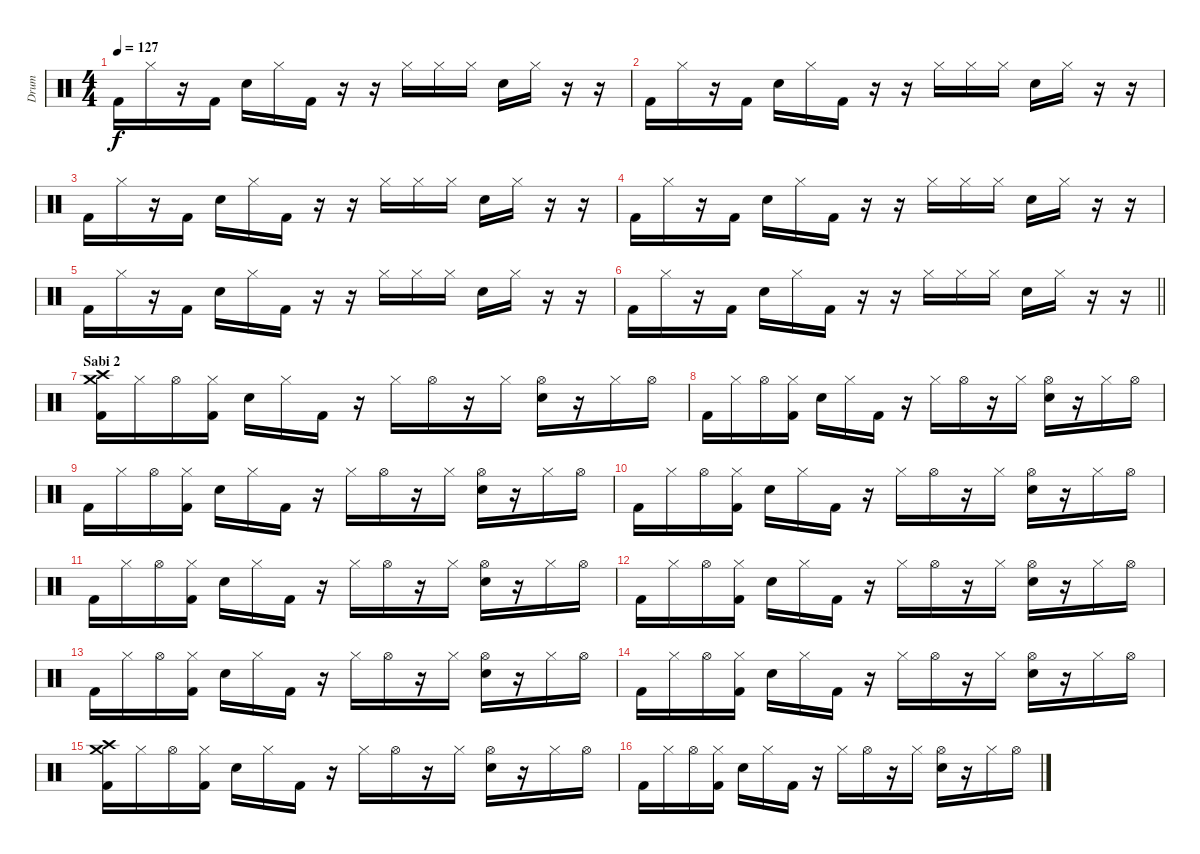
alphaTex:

\track ("Drum" "Drum") {instrument percussion}
\staff {score}
\articulation defaults
\ts (4 4)
\tempo 127
\clef neutral
\ks c "Kick (hit) 2".16{dy f} "Hi-Hat (closed)".16
r.16 "Kick (hit) 2".16 "Electric Snare (hit)".16 "Hi-Hat (closed)".16 "Kick (hit) 2".16 r.16 r.16 "Hi-Hat (closed)".16 "Hi-Hat (closed)".16 "Hi-Hat (closed)".16 "Electric Snare (hit)".16 "Hi-Hat (closed)".16 r.16 r.16 |
"Kick (hit) 2".16 "Hi-Hat (closed)".16 r.16 "Kick (hit) 2".16 "Electric Snare (hit)".16 "Hi-Hat (closed)".16 "Kick (hit) 2".16 r.16 r.16 "Hi-Hat (closed)".16 "Hi-Hat (closed)".16 "Hi-Hat (closed)".16 "Electric Snare (hit)".16 "Hi-Hat (closed)".16 r.16 r.16 |
"Kick (hit) 2".16 "Hi-Hat (closed)".16 r.16 "Kick (hit) 2".16 "Electric Snare (hit)".16 "Hi-Hat (closed)".16 "Kick (hit) 2".16 r.16 r.16 "Hi-Hat (closed)".16 "Hi-Hat (closed)".16 "Hi-Hat (closed)".16 "Electric Snare (hit)".16 "Hi-Hat (closed)".16 r.16 r.16 |
"Kick (hit) 2".16 "Hi-Hat (closed)".16 r.16 "Kick (hit) 2".16 "Electric Snare (hit)".16 "Hi-Hat (closed)".16 "Kick (hit) 2".16 r.16 r.16 "Hi-Hat (closed)".16 "Hi-Hat (closed)".16 "Hi-Hat (closed)".16 "Electric Snare (hit)".16 "Hi-Hat (closed)".16 r.16 r.16 |
"Kick (hit) 2".16 "Hi-Hat (closed)".16 r.16 "Kick (hit) 2".16 "Electric Snare (hit)".16 "Hi-Hat (closed)".16 "Kick (hit) 2".16 r.16 r.16 "Hi-Hat (closed)".16 "Hi-Hat (closed)".16 "Hi-Hat (closed)".16 "Electric Snare (hit)".16 "Hi-Hat (closed)".16 r.16 r.16 |
\barLineRight lightlight "Kick (hit) 2".16 "Hi-Hat (closed)".16
r.16 "Kick (hit) 2".16 "Electric Snare (hit)".16 "Hi-Hat (closed)".16 "Kick (hit) 2".16 r.16 r.16 "Hi-Hat (closed)".16 "Hi-Hat (closed)".16 "Hi-Hat (closed)".16 "Electric Snare (hit)".16 "Hi-Hat (closed)".16 r.16 r.16 |
\section ("" "Sabi 2")
("Crash high (hit)" "Crash medium (hit)" "Kick (hit) 2").16 "Hi-Hat (closed)".16 "Hi-Hat (open)".16 ("Hi-Hat (closed)" "Kick (hit) 2").16 "Electric Snare (hit)".16 "Hi-Hat (closed)".16 "Kick (hit) 2".16 r.16 "Hi-Hat (closed)".16 "Hi-Hat (open)".16 r.16 "Hi-Hat (closed)".16 ("Hi-Hat (open)" "Electric Snare (hit)").16 r.16 "Hi-Hat (closed)".16 "Hi-Hat (open)".16 |
"Kick (hit) 2".16 "Hi-Hat (closed)".16 "Hi-Hat (open)".16 ("Hi-Hat (closed)" "Kick (hit) 2").16 "Electric Snare (hit)".16 "Hi-Hat (closed)".16 "Kick (hit) 2".16 r.16 "Hi-Hat (closed)".16 "Hi-Hat (open)".16 r.16 "Hi-Hat (closed)".16 ("Hi-Hat (open)" "Electric Snare (hit)").16 r.16 "Hi-Hat (closed)".16 "Hi-Hat (open)".16 |
"Kick (hit) 2".16 "Hi-Hat (closed)".16 "Hi-Hat (open)".16 ("Hi-Hat (closed)" "Kick (hit) 2").16 "Electric Snare (hit)".16 "Hi-Hat (closed)".16 "Kick (hit) 2".16 r.16 "Hi-Hat (closed)".16 "Hi-Hat (open)".16 r.16 "Hi-Hat (closed)".16 ("Hi-Hat (open)" "Electric Snare (hit)").16 r.16 "Hi-Hat (closed)".16 "Hi-Hat (open)".16 |
"Kick (hit) 2".16 "Hi-Hat (closed)".16 "Hi-Hat (open)".16 ("Hi-Hat (closed)" "Kick (hit) 2").16 "Electric Snare (hit)".16 "Hi-Hat (closed)".16 "Kick (hit) 2".16 r.16 "Hi-Hat (closed)".16 "Hi-Hat (open)".16 r.16 "Hi-Hat (closed)".16 ("Hi-Hat (open)" "Electric Snare (hit)").16 r.16 "Hi-Hat (closed)".16 "Hi-Hat (open)".16 |
"Kick (hit) 2".16 "Hi-Hat (closed)".16 "Hi-Hat (open)".16 ("Hi-Hat (closed)" "Kick (hit) 2").16 "Electric Snare (hit)".16 "Hi-Hat (closed)".16 "Kick (hit) 2".16 r.16 "Hi-Hat (closed)".16 "Hi-Hat (open)".16 r.16 "Hi-Hat (closed)".16 ("Hi-Hat (open)" "Electric Snare (hit)").16 r.16 "Hi-Hat (closed)".16 "Hi-Hat (open)".16 |
"Kick (hit) 2".16 "Hi-Hat (closed)".16 "Hi-Hat (open)".16 ("Hi-Hat (closed)" "Kick (hit) 2").16 "Electric Snare (hit)".16 "Hi-Hat (closed)".16 "Kick (hit) 2".16 r.16 "Hi-Hat (closed)".16 "Hi-Hat (open)".16 r.16 "Hi-Hat (closed)".16 ("Hi-Hat (open)" "Electric Snare (hit)").16 r.16 "Hi-Hat (closed)".16 "Hi-Hat (open)".16 |
"Kick (hit) 2".16 "Hi-Hat (closed)".16 "Hi-Hat (open)".16 ("Hi-Hat (closed)" "Kick (hit) 2").16 "Electric Snare (hit)".16 "Hi-Hat (closed)".16 "Kick (hit) 2".16 r.16 "Hi-Hat (closed)".16 "Hi-Hat (open)".16 r.16 "Hi-Hat (closed)".16 ("Hi-Hat (open)" "Electric Snare (hit)").16 r.16 "Hi-Hat (closed)".16 "Hi-Hat (open)".16 |
"Kick (hit) 2".16 "Hi-Hat (closed)".16 "Hi-Hat (open)".16 ("Hi-Hat (closed)" "Kick (hit) 2").16 "Electric Snare (hit)".16 "Hi-Hat (closed)".16 "Kick (hit) 2".16 r.16 "Hi-Hat (closed)".16 "Hi-Hat (open)".16 r.16 "Hi-Hat (closed)".16 ("Hi-Hat (open)" "Electric Snare (hit)").16 r.16 "Hi-Hat (closed)".16 "Hi-Hat (open)".16 |
("Crash high (hit)" "Crash medium (hit)" "Kick (hit) 2").16 "Hi-Hat (closed)".16 "Hi-Hat (open)".16 ("Hi-Hat (closed)" "Kick (hit) 2").16 "Electric Snare (hit)".16 "Hi-Hat (closed)".16 "Kick (hit) 2".16 r.16 "Hi-Hat (closed)".16 "Hi-Hat (open)".16 r.16 "Hi-Hat (closed)".16 ("Hi-Hat (open)" "Electric Snare (hit)").16 r.16 "Hi-Hat (closed)".16 "Hi-Hat (open)".16 |
"Kick (hit) 2".16 "Hi-Hat (closed)".16 "Hi-Hat (open)".16 ("Hi-Hat (closed)" "Kick (hit) 2").16 "Electric Snare (hit)".16 "Hi-Hat (closed)".16 "Kick (hit) 2".16 r.16 "Hi-Hat (closed)".16 "Hi-Hat (open)".16 r.16 "Hi-Hat (closed)".16 ("Hi-Hat (open)" "Electric Snare (hit)").16 r.16 "Hi-Hat (closed)".16 "Hi-Hat (open)".16
